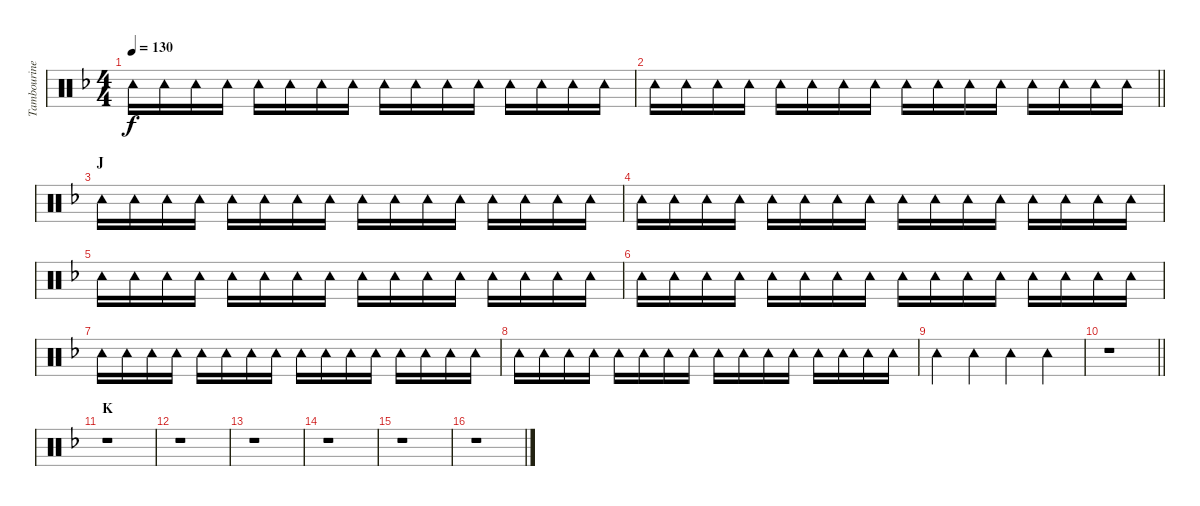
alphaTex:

\track ("Tambourine" "Tambourine") {instrument percussion}
\staff {score}
\articulation defaults
\ts (4 4)
\tempo 130
\clef neutral
\ks f "Tambourine (hit)".16{dy f} "Tambourine (hit)".16 "Tambourine (hit)".16 "Tambourine (hit)".16 "Tambourine (hit)".16 "Tambourine (hit)".16 "Tambourine (hit)".16 "Tambourine (hit)".16 "Tambourine (hit)".16 "Tambourine (hit)".16 "Tambourine (hit)".16 "Tambourine (hit)".16 "Tambourine (hit)".16 "Tambourine (hit)".16 "Tambourine (hit)".16 "Tambourine (hit)".16
|
\barLineRight lightlight "Tambourine (hit)".16 "Tambourine (hit)".16 "Tambourine (hit)".16 "Tambourine (hit)".16 "Tambourine (hit)".16 "Tambourine (hit)".16 "Tambourine (hit)".16 "Tambourine (hit)".16 "Tambourine (hit)".16 "Tambourine (hit)".16 "Tambourine (hit)".16 "Tambourine (hit)".16 "Tambourine (hit)".16 "Tambourine (hit)".16 "Tambourine (hit)".16 "Tambourine (hit)".16
|
\section ("" "J")
"Tambourine (hit)".16 "Tambourine (hit)".16 "Tambourine (hit)".16 "Tambourine (hit)".16 "Tambourine (hit)".16 "Tambourine (hit)".16 "Tambourine (hit)".16 "Tambourine (hit)".16 "Tambourine (hit)".16 "Tambourine (hit)".16 "Tambourine (hit)".16 "Tambourine (hit)".16 "Tambourine (hit)".16 "Tambourine (hit)".16 "Tambourine (hit)".16 "Tambourine (hit)".16 |
"Tambourine (hit)".16 "Tambourine (hit)".16 "Tambourine (hit)".16 "Tambourine (hit)".16 "Tambourine (hit)".16 "Tambourine (hit)".16 "Tambourine (hit)".16 "Tambourine (hit)".16 "Tambourine (hit)".16 "Tambourine (hit)".16 "Tambourine (hit)".16 "Tambourine (hit)".16 "Tambourine (hit)".16 "Tambourine (hit)".16 "Tambourine (hit)".16 "Tambourine (hit)".16 |
"Tambourine (hit)".16 "Tambourine (hit)".16 "Tambourine (hit)".16 "Tambourine (hit)".16 "Tambourine (hit)".16 "Tambourine (hit)".16 "Tambourine (hit)".16 "Tambourine (hit)".16 "Tambourine (hit)".16 "Tambourine (hit)".16 "Tambourine (hit)".16 "Tambourine (hit)".16 "Tambourine (hit)".16 "Tambourine (hit)".16 "Tambourine (hit)".16 "Tambourine (hit)".16 |
"Tambourine (hit)".16 "Tambourine (hit)".16 "Tambourine (hit)".16 "Tambourine (hit)".16 "Tambourine (hit)".16 "Tambourine (hit)".16 "Tambourine (hit)".16 "Tambourine (hit)".16 "Tambourine (hit)".16 "Tambourine (hit)".16 "Tambourine (hit)".16 "Tambourine (hit)".16 "Tambourine (hit)".16 "Tambourine (hit)".16 "Tambourine (hit)".16 "Tambourine (hit)".16 |
"Tambourine (hit)".16 "Tambourine (hit)".16 "Tambourine (hit)".16 "Tambourine (hit)".16 "Tambourine (hit)".16 "Tambourine (hit)".16 "Tambourine (hit)".16 "Tambourine (hit)".16 "Tambourine (hit)".16 "Tambourine (hit)".16 "Tambourine (hit)".16 "Tambourine (hit)".16 "Tambourine (hit)".16 "Tambourine (hit)".16 "Tambourine (hit)".16 "Tambourine (hit)".16 |
"Tambourine (hit)".16 "Tambourine (hit)".16 "Tambourine (hit)".16 "Tambourine (hit)".16 "Tambourine (hit)".16 "Tambourine (hit)".16 "Tambourine (hit)".16 "Tambourine (hit)".16 "Tambourine (hit)".16 "Tambourine (hit)".16 "Tambourine (hit)".16 "Tambourine (hit)".16 "Tambourine (hit)".16 "Tambourine (hit)".16 "Tambourine (hit)".16 "Tambourine (hit)".16 |
"Tambourine (hit)".4 "Tambourine (hit)".4 "Tambourine (hit)".4 "Tambourine (hit)".4 |
\barLineRight lightlight
r.1 |
\section ("" "K")
r.1 |
r.1 |
r.1 |
r.1 |
r.1 |
r.1
